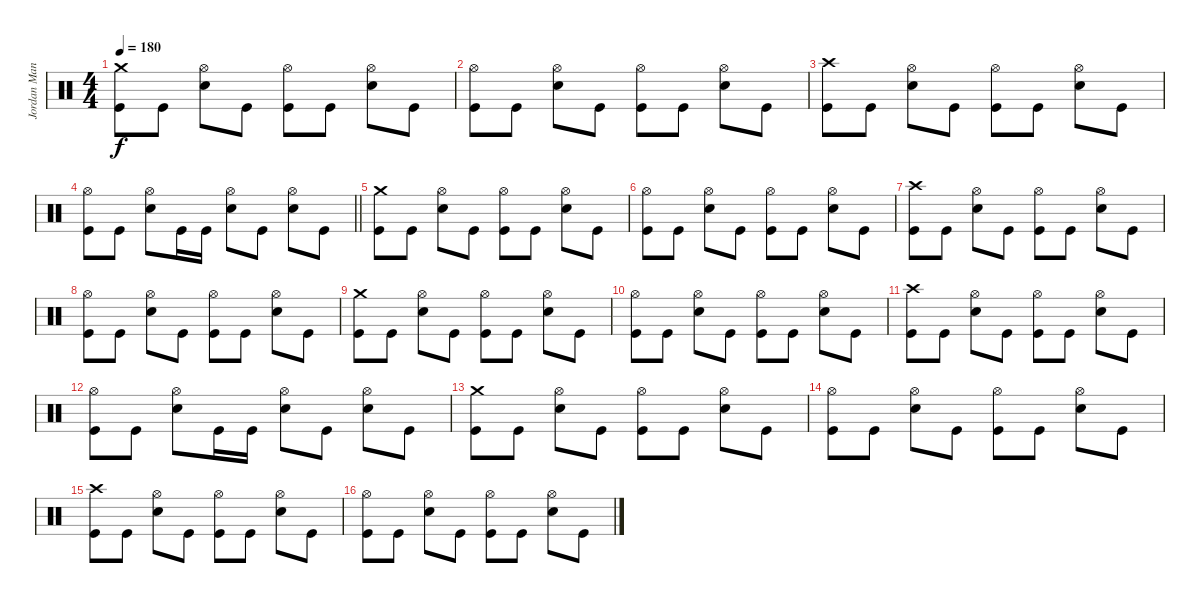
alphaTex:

\track ("Jordan Mancino" "Jordan Man") {instrument percussion}
\staff {score}
\articulation defaults
\ts (4 4)
\tempo 180
\clef neutral
\ks c
("Crash medium (hit)" "Kick (hit)").8{dy f} "Kick (hit)".8 ("Hi-Hat (open)" "Snare (hit) 2").8 "Kick (hit)".8 ("Hi-Hat (open)" "Kick (hit)").8 "Kick (hit)".8 ("Hi-Hat (open)" "Snare (hit) 2").8 "Kick (hit)".8 |
("Hi-Hat (open)" "Kick (hit)").8 "Kick (hit)".8 ("Hi-Hat (open)" "Snare (hit) 2").8 "Kick (hit)".8 ("Hi-Hat (open)" "Kick (hit)").8 "Kick (hit)".8 ("Hi-Hat (open)" "Snare (hit) 2").8 "Kick (hit)".8 |
("Crash high (hit)" "Kick (hit)").8 "Kick (hit)".8 ("Hi-Hat (open)" "Snare (hit) 2").8 "Kick (hit)".8 ("Hi-Hat (open)" "Kick (hit)").8 "Kick (hit)".8 ("Hi-Hat (open)" "Snare (hit) 2").8 "Kick (hit)".8 |
\barLineRight lightlight
("Hi-Hat (open)" "Kick (hit)").8 "Kick (hit)".8 ("Hi-Hat (open)" "Snare (hit) 2").8 "Kick (hit)".16 "Kick (hit)".16 ("Hi-Hat (open)" "Snare (hit) 2").8 "Kick (hit)".8 ("Hi-Hat (open)" "Snare (hit) 2").8 "Kick (hit)".8 |
("Crash medium (hit)" "Kick (hit)").8 "Kick (hit)".8 ("Hi-Hat (open)" "Snare (hit) 2").8 "Kick (hit)".8 ("Hi-Hat (open)" "Kick (hit)").8 "Kick (hit)".8 ("Hi-Hat (open)" "Snare (hit) 2").8 "Kick (hit)".8 |
("Hi-Hat (open)" "Kick (hit)").8 "Kick (hit)".8 ("Hi-Hat (open)" "Snare (hit) 2").8 "Kick (hit)".8 ("Hi-Hat (open)" "Kick (hit)").8 "Kick (hit)".8 ("Hi-Hat (open)" "Snare (hit) 2").8 "Kick (hit)".8 |
("Crash high (hit)" "Kick (hit)").8 "Kick (hit)".8 ("Hi-Hat (open)" "Snare (hit) 2").8 "Kick (hit)".8 ("Hi-Hat (open)" "Kick (hit)").8 "Kick (hit)".8 ("Hi-Hat (open)" "Snare (hit) 2").8 "Kick (hit)".8 |
("Hi-Hat (open)" "Kick (hit)").8 "Kick (hit)".8 ("Hi-Hat (open)" "Snare (hit) 2").8 "Kick (hit)".8 ("Hi-Hat (open)" "Kick (hit)").8 "Kick (hit)".8 ("Hi-Hat (open)" "Snare (hit) 2").8 "Kick (hit)".8 |
("Crash medium (hit)" "Kick (hit)").8 "Kick (hit)".8 ("Hi-Hat (open)" "Snare (hit) 2").8 "Kick (hit)".8 ("Hi-Hat (open)" "Kick (hit)").8 "Kick (hit)".8 ("Hi-Hat (open)" "Snare (hit) 2").8 "Kick (hit)".8 |
("Hi-Hat (open)" "Kick (hit)").8 "Kick (hit)".8 ("Hi-Hat (open)" "Snare (hit) 2").8 "Kick (hit)".8 ("Hi-Hat (open)" "Kick (hit)").8 "Kick (hit)".8 ("Hi-Hat (open)" "Snare (hit) 2").8 "Kick (hit)".8 |
("Crash high (hit)" "Kick (hit)").8 "Kick (hit)".8 ("Hi-Hat (open)" "Snare (hit) 2").8 "Kick (hit)".8 ("Hi-Hat (open)" "Kick (hit)").8 "Kick (hit)".8 ("Hi-Hat (open)" "Snare (hit) 2").8 "Kick (hit)".8 |
("Hi-Hat (open)" "Kick (hit)").8 "Kick (hit)".8 ("Hi-Hat (open)" "Snare (hit) 2").8 "Kick (hit)".16 "Kick (hit)".16 ("Hi-Hat (open)" "Snare (hit) 2").8 "Kick (hit)".8 ("Hi-Hat (open)" "Snare (hit) 2").8 "Kick (hit)".8 |
("Crash medium (hit)" "Kick (hit)").8 "Kick (hit)".8 ("Hi-Hat (open)" "Snare (hit) 2").8 "Kick (hit)".8 ("Hi-Hat (open)" "Kick (hit)").8 "Kick (hit)".8 ("Hi-Hat (open)" "Snare (hit) 2").8 "Kick (hit)".8 |
("Hi-Hat (open)" "Kick (hit)").8 "Kick (hit)".8 ("Hi-Hat (open)" "Snare (hit) 2").8 "Kick (hit)".8 ("Hi-Hat (open)" "Kick (hit)").8 "Kick (hit)".8 ("Hi-Hat (open)" "Snare (hit) 2").8 "Kick (hit)".8 |
("Crash high (hit)" "Kick (hit)").8 "Kick (hit)".8 ("Hi-Hat (open)" "Snare (hit) 2").8 "Kick (hit)".8 ("Hi-Hat (open)" "Kick (hit)").8 "Kick (hit)".8 ("Hi-Hat (open)" "Snare (hit) 2").8 "Kick (hit)".8 |
("Hi-Hat (open)" "Kick (hit)").8 "Kick (hit)".8 ("Hi-Hat (open)" "Snare (hit) 2").8 "Kick (hit)".8 ("Hi-Hat (open)" "Kick (hit)").8 "Kick (hit)".8 ("Hi-Hat (open)" "Snare (hit) 2").8 "Kick (hit)".8
